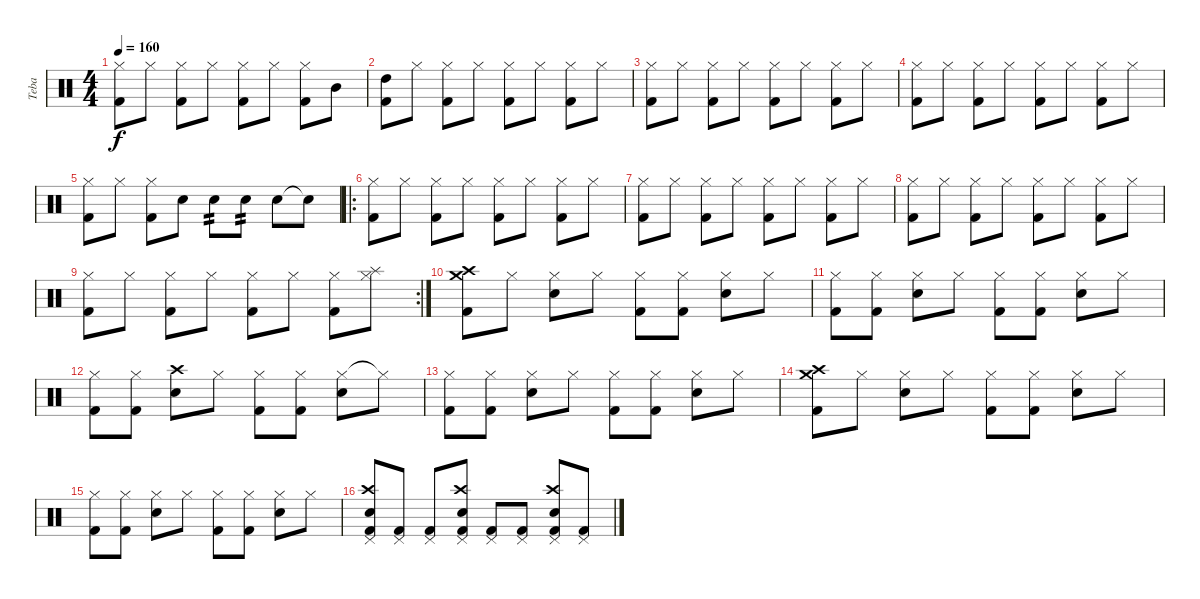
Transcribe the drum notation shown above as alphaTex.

\track ("Teba" "Teba") {instrument percussion}
\staff {score}
\articulation defaults
\ts (4 4)
\tempo 160
\clef neutral
\ks c
("Hi-Hat (closed)" "Kick (hit) 2").8{dy f} "Hi-Hat (closed)".8 ("Hi-Hat (closed)" "Kick (hit) 2").8 "Hi-Hat (closed)".8 ("Hi-Hat (closed)" "Kick (hit) 2").8 "Hi-Hat (closed)".8 ("Hi-Hat (closed)" "Kick (hit) 2").8 "Mid Tom (hit)".8 |
("High Tom (hit)" "Kick (hit) 2").8 "Hi-Hat (closed)".8 ("Hi-Hat (closed)" "Kick (hit) 2").8 "Hi-Hat (closed)".8 ("Hi-Hat (closed)" "Kick (hit) 2").8 "Hi-Hat (closed)".8 ("Hi-Hat (closed)" "Kick (hit) 2").8 "Hi-Hat (closed)".8 |
("Hi-Hat (closed)" "Kick (hit) 2").8 "Hi-Hat (closed)".8 ("Hi-Hat (closed)" "Kick (hit) 2").8 "Hi-Hat (closed)".8 ("Hi-Hat (closed)" "Kick (hit) 2").8 "Hi-Hat (closed)".8 ("Hi-Hat (closed)" "Kick (hit) 2").8 "Hi-Hat (closed)".8 |
("Hi-Hat (closed)" "Kick (hit) 2").8 "Hi-Hat (closed)".8 ("Hi-Hat (closed)" "Kick (hit) 2").8 "Hi-Hat (closed)".8 ("Hi-Hat (closed)" "Kick (hit) 2").8 "Hi-Hat (closed)".8 ("Hi-Hat (closed)" "Kick (hit) 2").8 "Hi-Hat (closed)".8 |
("Hi-Hat (closed)" "Kick (hit) 2").8 "Hi-Hat (closed)".8 ("Hi-Hat (closed)" "Kick (hit) 2").8 "Electric Snare (hit)".8 "Electric Snare (hit)".8{tp 2} "Electric Snare (hit)".8{tp 2} "Electric Snare (hit)".8 "Electric Snare (hit)"{t}.8 |
\ro
("Hi-Hat (closed)" "Kick (hit) 2").8 "Hi-Hat (closed)".8 ("Hi-Hat (closed)" "Kick (hit) 2").8 "Hi-Hat (closed)".8 ("Hi-Hat (closed)" "Kick (hit) 2").8 "Hi-Hat (closed)".8 ("Hi-Hat (closed)" "Kick (hit) 2").8 "Hi-Hat (closed)".8 |
("Hi-Hat (closed)" "Kick (hit) 2").8 "Hi-Hat (closed)".8 ("Hi-Hat (closed)" "Kick (hit) 2").8 "Hi-Hat (closed)".8 ("Hi-Hat (closed)" "Kick (hit) 2").8 "Hi-Hat (closed)".8 ("Hi-Hat (closed)" "Kick (hit) 2").8 "Hi-Hat (closed)".8 |
("Hi-Hat (closed)" "Kick (hit) 2").8 "Hi-Hat (closed)".8 ("Hi-Hat (closed)" "Kick (hit) 2").8 "Hi-Hat (closed)".8 ("Hi-Hat (closed)" "Kick (hit) 2").8 "Hi-Hat (closed)".8 ("Hi-Hat (closed)" "Kick (hit) 2").8 "Hi-Hat (closed)".8 |
\rc 2
("Hi-Hat (closed)" "Kick (hit) 2").8 "Hi-Hat (closed)".8 ("Hi-Hat (closed)" "Kick (hit) 2").8 "Hi-Hat (closed)".8 ("Hi-Hat (closed)" "Kick (hit) 2").8 "Hi-Hat (closed)".8 ("Hi-Hat (closed)" "Kick (hit) 2").8 ("Splash (hit)" "Hi-Hat (closed)").8 |
("Crash medium (hit)" "Crash high (hit)" "Kick (hit) 2").8 "Hi-Hat (closed)".8 ("Hi-Hat (closed)" "Electric Snare (hit)").8 "Hi-Hat (closed)".8 ("Hi-Hat (closed)" "Kick (hit) 2").8 ("Hi-Hat (closed)" "Kick (hit) 2").8 ("Hi-Hat (closed)" "Electric Snare (hit)").8 "Hi-Hat (closed)".8 |
("Hi-Hat (closed)" "Kick (hit) 2").8 ("Hi-Hat (closed)" "Kick (hit) 2").8 ("Hi-Hat (closed)" "Electric Snare (hit)").8 "Hi-Hat (closed)".8 ("Hi-Hat (closed)" "Kick (hit) 2").8 ("Hi-Hat (closed)" "Kick (hit) 2").8 ("Hi-Hat (closed)" "Electric Snare (hit)").8 "Hi-Hat (closed)".8 |
("Hi-Hat (closed)" "Kick (hit) 2").8 ("Hi-Hat (closed)" "Kick (hit) 2").8 ("Crash high (hit)" "Electric Snare (hit)").8 "Hi-Hat (closed)".8 ("Hi-Hat (closed)" "Kick (hit) 2").8 ("Hi-Hat (closed)" "Kick (hit) 2").8 ("Hi-Hat (closed)" "Electric Snare (hit)").8 "Hi-Hat (closed)"{t}.8 |
("Hi-Hat (closed)" "Kick (hit) 2").8 ("Hi-Hat (closed)" "Kick (hit) 2").8 ("Hi-Hat (closed)" "Electric Snare (hit)").8 "Hi-Hat (closed)".8 ("Hi-Hat (closed)" "Kick (hit) 2").8 ("Hi-Hat (closed)" "Kick (hit) 2").8 ("Hi-Hat (closed)" "Electric Snare (hit)").8 "Hi-Hat (closed)".8 |
("Crash medium (hit)" "Crash high (hit)" "Kick (hit) 2").8 "Hi-Hat (closed)".8 ("Hi-Hat (closed)" "Electric Snare (hit)").8 "Hi-Hat (closed)".8 ("Hi-Hat (closed)" "Kick (hit) 2").8 ("Hi-Hat (closed)" "Kick (hit) 2").8 ("Hi-Hat (closed)" "Electric Snare (hit)").8 "Hi-Hat (closed)".8 |
("Hi-Hat (closed)" "Kick (hit) 2").8 ("Hi-Hat (closed)" "Kick (hit) 2").8 ("Hi-Hat (closed)" "Electric Snare (hit)").8 "Hi-Hat (closed)".8 ("Hi-Hat (closed)" "Kick (hit) 2").8 ("Hi-Hat (closed)" "Kick (hit) 2").8 ("Hi-Hat (closed)" "Electric Snare (hit)").8 "Hi-Hat (closed)".8 |
("Crash high (hit)" "Pedal Hi-Hat (hit)" "Electric Snare (hit)" "Kick (hit) 2").8 ("Pedal Hi-Hat (hit)" "Kick (hit) 2").8 ("Pedal Hi-Hat (hit)" "Kick (hit) 2").8 ("Crash high (hit)" "Pedal Hi-Hat (hit)" "Electric Snare (hit)" "Kick (hit) 2").8 ("Pedal Hi-Hat (hit)" "Kick (hit) 2").8 ("Pedal Hi-Hat (hit)" "Kick (hit) 2").8 ("Crash high (hit)" "Pedal Hi-Hat (hit)" "Electric Snare (hit)" "Kick (hit) 2").8 ("Pedal Hi-Hat (hit)" "Kick (hit) 2").8
